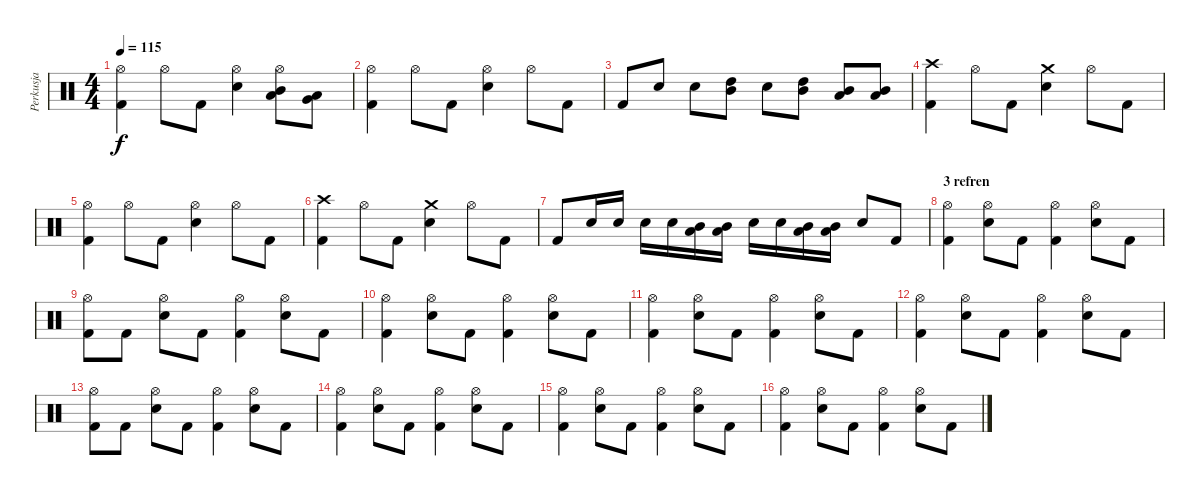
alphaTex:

\track ("Perkusja" "Perkusja") {instrument percussion}
\staff {score}
\articulation defaults
\ts (4 4)
\tempo 115
\clef neutral
\ks c
("Hi-Hat (open)" "Kick (hit) 2").4{dy f} "Hi-Hat (open)".8 "Kick (hit) 2".8 ("Hi-Hat (open)" "Snare (hit) 2").4 ("Hi-Hat (open)" "Mid Tom (hit)" "Low Tom (hit)").8 ("Low Tom (hit)" "Very Low Tom (hit)").8 |
("Hi-Hat (open)" "Kick (hit) 2").4 "Hi-Hat (open)".8 "Kick (hit) 2".8 ("Hi-Hat (open)" "Snare (hit) 2").4 "Hi-Hat (open)".8 "Kick (hit) 2".8 |
"Kick (hit) 2".8 "Snare (hit) 2".8 "Snare (hit) 2".8 ("Mid Tom (hit)" "High Tom (hit)").8 "Snare (hit) 2".8 ("Mid Tom (hit)" "High Tom (hit)").8 ("Low Tom (hit)" "Mid Tom (hit)").8 ("Low Tom (hit)" "Mid Tom (hit)").8 |
("Crash high (hit)" "Kick (hit) 2").4 "Hi-Hat (open)".8 "Kick (hit) 2".8 ("Crash medium (hit)" "Snare (hit) 2").4 "Hi-Hat (open)".8 "Kick (hit) 2".8 |
("Hi-Hat (open)" "Kick (hit) 2").4 "Hi-Hat (open)".8 "Kick (hit) 2".8 ("Hi-Hat (open)" "Snare (hit) 2").4 "Hi-Hat (open)".8 "Kick (hit) 2".8 |
("Crash high (hit)" "Kick (hit) 2").4 "Hi-Hat (open)".8 "Kick (hit) 2".8 ("Crash medium (hit)" "Snare (hit) 2").4 "Hi-Hat (open)".8 "Kick (hit) 2".8 |
"Kick (hit) 2".8 "Snare (hit) 2".16 "Snare (hit) 2".16 "Snare (hit) 2".16 "Snare (hit) 2".16 ("Mid Tom (hit)" "Low Tom (hit)").16 ("Mid Tom (hit)" "Low Tom (hit)").16 "Snare (hit) 2".16 "Snare (hit) 2".16 ("Mid Tom (hit)" "Low Tom (hit)").16 ("Mid Tom (hit)" "Low Tom (hit)").16 "Snare (hit) 2".8 "Kick (hit) 2".8 |
\section ("" "3 refren")
("Hi-Hat (open)" "Kick (hit) 2").4 ("Hi-Hat (open)" "Snare (hit) 2").8 "Kick (hit) 2".8 ("Hi-Hat (open)" "Kick (hit) 2").4 ("Hi-Hat (open)" "Snare (hit) 2").8 "Kick (hit) 2".8 |
("Hi-Hat (open)" "Kick (hit) 2").8 "Kick (hit) 2".8 ("Hi-Hat (open)" "Snare (hit) 2").8 "Kick (hit) 2".8 ("Hi-Hat (open)" "Kick (hit) 2").4 ("Hi-Hat (open)" "Snare (hit) 2").8 "Kick (hit) 2".8 |
("Hi-Hat (open)" "Kick (hit) 2").4 ("Hi-Hat (open)" "Snare (hit) 2").8 "Kick (hit) 2".8 ("Hi-Hat (open)" "Kick (hit) 2").4 ("Hi-Hat (open)" "Snare (hit) 2").8 "Kick (hit) 2".8 |
("Hi-Hat (open)" "Kick (hit) 2").4 ("Hi-Hat (open)" "Snare (hit) 2").8 "Kick (hit) 2".8 ("Hi-Hat (open)" "Kick (hit) 2").4 ("Hi-Hat (open)" "Snare (hit) 2").8 "Kick (hit) 2".8 |
("Hi-Hat (open)" "Kick (hit) 2").4 ("Hi-Hat (open)" "Snare (hit) 2").8 "Kick (hit) 2".8 ("Hi-Hat (open)" "Kick (hit) 2").4 ("Hi-Hat (open)" "Snare (hit) 2").8 "Kick (hit) 2".8 |
("Hi-Hat (open)" "Kick (hit) 2").8 "Kick (hit) 2".8 ("Hi-Hat (open)" "Snare (hit) 2").8 "Kick (hit) 2".8 ("Hi-Hat (open)" "Kick (hit) 2").4 ("Hi-Hat (open)" "Snare (hit) 2").8 "Kick (hit) 2".8 |
("Hi-Hat (open)" "Kick (hit) 2").4 ("Hi-Hat (open)" "Snare (hit) 2").8 "Kick (hit) 2".8 ("Hi-Hat (open)" "Kick (hit) 2").4 ("Hi-Hat (open)" "Snare (hit) 2").8 "Kick (hit) 2".8 |
("Hi-Hat (open)" "Kick (hit) 2").4 ("Hi-Hat (open)" "Snare (hit) 2").8 "Kick (hit) 2".8 ("Hi-Hat (open)" "Kick (hit) 2").4 ("Hi-Hat (open)" "Snare (hit) 2").8 "Kick (hit) 2".8 |
("Hi-Hat (open)" "Kick (hit) 2").4 ("Hi-Hat (open)" "Snare (hit) 2").8 "Kick (hit) 2".8 ("Hi-Hat (open)" "Kick (hit) 2").4 ("Hi-Hat (open)" "Snare (hit) 2").8 "Kick (hit) 2".8
